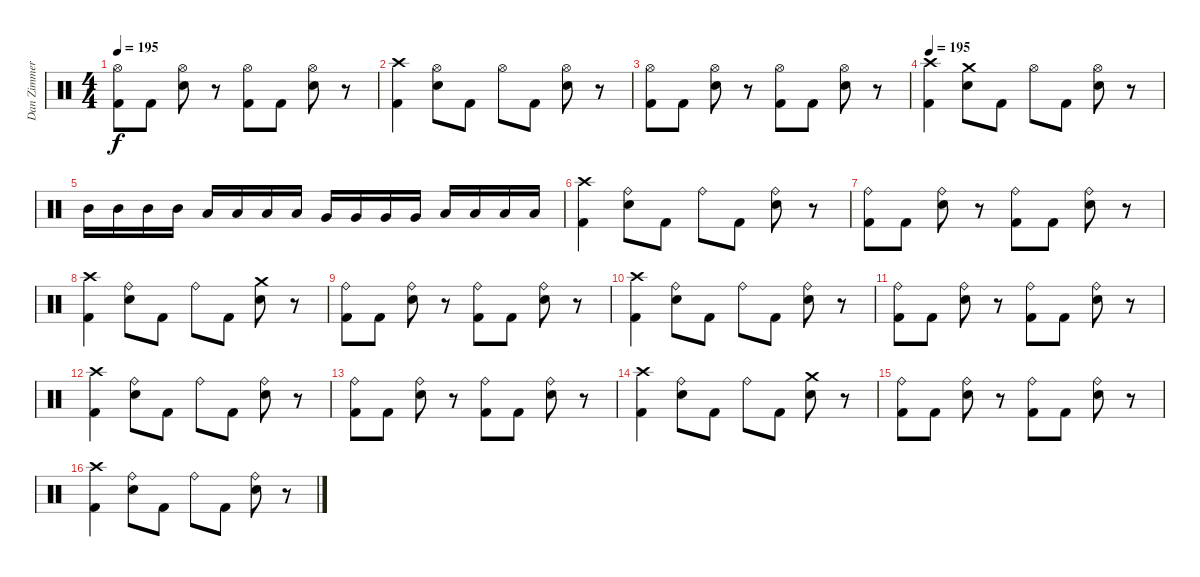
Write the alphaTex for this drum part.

\track ("Dan Zimmermann" "Dan Zimmer") {instrument percussion}
\staff {score}
\articulation defaults
\ts (4 4)
\tempo 195
\clef neutral
\ks c
("Hi-Hat (open)" "Kick (hit) 2").8{dy f} "Kick (hit) 2".8 ("Hi-Hat (open)" "Electric Snare (hit)").8 r.8 ("Hi-Hat (open)" "Kick (hit) 2").8 "Kick (hit) 2".8 ("Hi-Hat (open)" "Electric Snare (hit)").8 r.8 |
("Crash high (hit)" "Kick (hit) 2").4 ("Hi-Hat (open)" "Electric Snare (hit)").8 "Kick (hit) 2".8 "Hi-Hat (open)".8 "Kick (hit) 2".8 ("Hi-Hat (open)" "Electric Snare (hit)").8 r.8 |
("Hi-Hat (open)" "Kick (hit) 2").8 "Kick (hit) 2".8 ("Hi-Hat (open)" "Electric Snare (hit)").8 r.8 ("Hi-Hat (open)" "Kick (hit) 2").8 "Kick (hit) 2".8 ("Hi-Hat (open)" "Electric Snare (hit)").8 r.8 |
\tempo 195
("Crash high (hit)" "Kick (hit) 2").4 ("Crash medium (hit)" "Electric Snare (hit)").8 "Kick (hit) 2".8 "Hi-Hat (open)".8 "Kick (hit) 2".8 ("Hi-Hat (open)" "Electric Snare (hit)").8 r.8 |
"Mid Tom (hit)".16 "Mid Tom (hit)".16 "Mid Tom (hit)".16 "Mid Tom (hit)".16 "Low Tom (hit)".16 "Low Tom (hit)".16 "Low Tom (hit)".16 "Low Tom (hit)".16 "Very Low Tom (hit)".16 "Very Low Tom (hit)".16 "Very Low Tom (hit)".16 "Very Low Tom (hit)".16 "Low Floor Tom (hit)".16 "Low Floor Tom (hit)".16 "Low Floor Tom (hit)".16 "Low Floor Tom (hit)".16 |
("Crash high (hit)" "Kick (hit) 2").4 ("Ride (bell)" "Electric Snare (hit)").8 "Kick (hit) 2".8 "Ride (bell)".8 "Kick (hit) 2".8 ("Ride (bell)" "Electric Snare (hit)").8 r.8 |
("Ride (bell)" "Kick (hit) 2").8 "Kick (hit) 2".8 ("Ride (bell)" "Electric Snare (hit)").8 r.8 ("Ride (bell)" "Kick (hit) 2").8 "Kick (hit) 2".8 ("Ride (bell)" "Electric Snare (hit)").8 r.8 |
("Crash high (hit)" "Kick (hit) 2").4 ("Ride (bell)" "Electric Snare (hit)").8 "Kick (hit) 2".8 "Ride (bell)".8 "Kick (hit) 2".8 ("Crash medium (hit)" "Electric Snare (hit)").8 r.8 |
("Ride (bell)" "Kick (hit) 2").8 "Kick (hit) 2".8 ("Ride (bell)" "Electric Snare (hit)").8 r.8 ("Ride (bell)" "Kick (hit) 2").8 "Kick (hit) 2".8 ("Ride (bell)" "Electric Snare (hit)").8 r.8 |
("Crash high (hit)" "Kick (hit) 2").4 ("Ride (bell)" "Electric Snare (hit)").8 "Kick (hit) 2".8 "Ride (bell)".8 "Kick (hit) 2".8 ("Ride (bell)" "Electric Snare (hit)").8 r.8 |
("Ride (bell)" "Kick (hit) 2").8 "Kick (hit) 2".8 ("Ride (bell)" "Electric Snare (hit)").8 r.8 ("Ride (bell)" "Kick (hit) 2").8 "Kick (hit) 2".8 ("Ride (bell)" "Electric Snare (hit)").8 r.8 |
("Crash high (hit)" "Kick (hit) 2").4 ("Ride (bell)" "Electric Snare (hit)").8 "Kick (hit) 2".8 "Ride (bell)".8 "Kick (hit) 2".8 ("Ride (bell)" "Electric Snare (hit)").8 r.8 |
("Ride (bell)" "Kick (hit) 2").8 "Kick (hit) 2".8 ("Ride (bell)" "Electric Snare (hit)").8 r.8 ("Ride (bell)" "Kick (hit) 2").8 "Kick (hit) 2".8 ("Ride (bell)" "Electric Snare (hit)").8 r.8 |
("Crash high (hit)" "Kick (hit) 2").4 ("Ride (bell)" "Electric Snare (hit)").8 "Kick (hit) 2".8 "Ride (bell)".8 "Kick (hit) 2".8 ("Crash medium (hit)" "Electric Snare (hit)").8 r.8 |
("Ride (bell)" "Kick (hit) 2").8 "Kick (hit) 2".8 ("Ride (bell)" "Electric Snare (hit)").8 r.8 ("Ride (bell)" "Kick (hit) 2").8 "Kick (hit) 2".8 ("Ride (bell)" "Electric Snare (hit)").8 r.8 |
("Crash high (hit)" "Kick (hit) 2").4 ("Ride (bell)" "Electric Snare (hit)").8 "Kick (hit) 2".8 "Ride (bell)".8 "Kick (hit) 2".8 ("Ride (bell)" "Electric Snare (hit)").8 r.8
